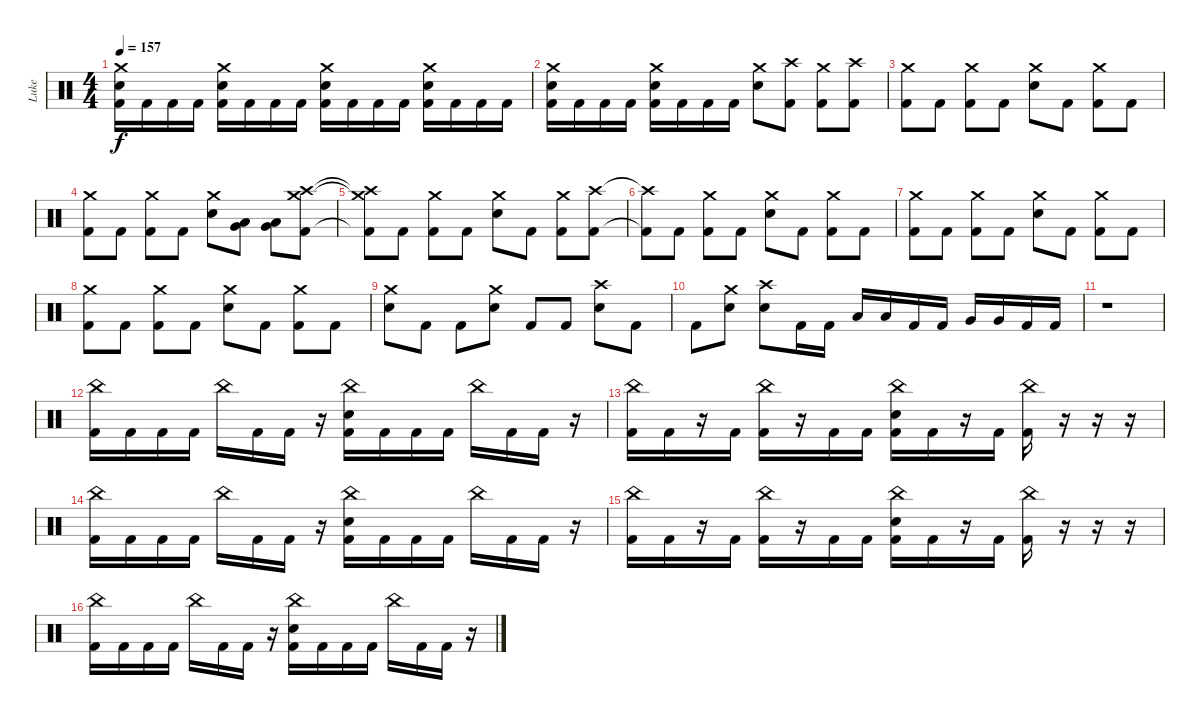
\track ("Luke" "Luke") {instrument percussion}
\staff {score}
\articulation defaults
\ts (4 4)
\tempo 157
\clef neutral
\ks c
("Crash medium (hit)" "Electric Snare (hit)" "Kick (hit) 2").16{dy f} "Kick (hit) 2".16 "Kick (hit) 2".16 "Kick (hit) 2".16 ("Crash medium (hit)" "Electric Snare (hit)" "Kick (hit) 2").16 "Kick (hit) 2".16 "Kick (hit) 2".16 "Kick (hit) 2".16 ("Crash medium (hit)" "Electric Snare (hit)" "Kick (hit) 2").16 "Kick (hit) 2".16 "Kick (hit) 2".16 "Kick (hit) 2".16 ("Crash medium (hit)" "Electric Snare (hit)" "Kick (hit) 2").16 "Kick (hit) 2".16 "Kick (hit) 2".16 "Kick (hit) 2".16 |
("Crash medium (hit)" "Electric Snare (hit)" "Kick (hit) 2").16 "Kick (hit) 2".16 "Kick (hit) 2".16 "Kick (hit) 2".16 ("Crash medium (hit)" "Electric Snare (hit)" "Kick (hit) 2").16 "Kick (hit) 2".16 "Kick (hit) 2".16 "Kick (hit) 2".16 ("Crash medium (hit)" "Electric Snare (hit)").8 ("Crash high (hit)" "Kick (hit) 2").8 ("Crash medium (hit)" "Kick (hit) 2").8 ("Crash high (hit)" "Kick (hit) 2").8 |
("Crash medium (hit)" "Kick (hit) 2").8 "Kick (hit) 2".8 ("Crash medium (hit)" "Kick (hit) 2").8 "Kick (hit) 2".8 ("Crash medium (hit)" "Electric Snare (hit)").8 "Kick (hit) 2".8 ("Crash medium (hit)" "Kick (hit) 2").8 "Kick (hit) 2".8 |
("Crash medium (hit)" "Kick (hit) 2").8 "Kick (hit) 2".8 ("Crash medium (hit)" "Kick (hit) 2").8 "Kick (hit) 2".8 ("Crash medium (hit)" "Electric Snare (hit)").8 ("Very Low Tom (hit)" "Low Floor Tom (hit)").8 ("Very Low Tom (hit)" "Low Floor Tom (hit)").8 ("Crash medium (hit)" "Crash high (hit)" "Kick (hit) 2").8 |
("Crash medium (hit)"{t} "Crash high (hit)"{t} "Kick (hit) 2"{t}).8 "Kick (hit) 2".8 ("Crash medium (hit)" "Kick (hit) 2").8 "Kick (hit) 2".8 ("Crash medium (hit)" "Electric Snare (hit)").8 "Kick (hit) 2".8 ("Crash medium (hit)" "Kick (hit) 2").8 ("Crash high (hit)" "Kick (hit) 2").8 |
("Crash high (hit)"{t} "Kick (hit) 2"{t}).8 "Kick (hit) 2".8 ("Crash medium (hit)" "Kick (hit) 2").8 "Kick (hit) 2".8 ("Crash medium (hit)" "Electric Snare (hit)").8 "Kick (hit) 2".8 ("Crash medium (hit)" "Kick (hit) 2").8 "Kick (hit) 2".8 |
("Crash medium (hit)" "Kick (hit) 2").8 "Kick (hit) 2".8 ("Crash medium (hit)" "Kick (hit) 2").8 "Kick (hit) 2".8 ("Crash medium (hit)" "Electric Snare (hit)").8 "Kick (hit) 2".8 ("Crash medium (hit)" "Kick (hit) 2").8 "Kick (hit) 2".8 |
("Crash medium (hit)" "Kick (hit) 2").8 "Kick (hit) 2".8 ("Crash medium (hit)" "Kick (hit) 2").8 "Kick (hit) 2".8 ("Crash medium (hit)" "Electric Snare (hit)").8 "Kick (hit) 2".8 ("Crash medium (hit)" "Kick (hit) 2").8 "Kick (hit) 2".8 |
("Crash medium (hit)" "Electric Snare (hit)").8 "Kick (hit) 2".8 "Kick (hit) 2".8 ("Crash medium (hit)" "Electric Snare (hit)").8 "Kick (hit) 2".8 "Kick (hit) 2".8 ("Crash high (hit)" "Electric Snare (hit)").8 "Kick (hit) 2".8 |
"Kick (hit) 2".8 ("Crash medium (hit)" "Electric Snare (hit)").8 ("Crash high (hit)" "Electric Snare (hit)").8 "Kick (hit) 2".16 "Kick (hit) 2".16 "Low Tom (hit)".16 "Low Tom (hit)".16 "Kick (hit) 2".16 "Kick (hit) 2".16 "Very Low Tom (hit)".16 "Very Low Tom (hit)".16 "Kick (hit) 2".16 "Kick (hit) 2".16 |
r.1 |
("China (hit)" "Kick (hit) 2").16 "Kick (hit) 2".16 "Kick (hit) 2".16 "Kick (hit) 2".16 "China (hit)".16 "Kick (hit) 2".16 "Kick (hit) 2".16 r.16 ("China (hit)" "Electric Snare (hit)" "Kick (hit) 2").16 "Kick (hit) 2".16 "Kick (hit) 2".16 "Kick (hit) 2".16 "China (hit)".16 "Kick (hit) 2".16 "Kick (hit) 2".16 r.16 |
("China (hit)" "Kick (hit) 2").16 "Kick (hit) 2".16 r.16 "Kick (hit) 2".16 ("China (hit)" "Kick (hit) 2").16 r.16 "Kick (hit) 2".16 "Kick (hit) 2".16 ("China (hit)" "Electric Snare (hit)" "Kick (hit) 2").16 "Kick (hit) 2".16 r.16 "Kick (hit) 2".16 ("China (hit)" "Kick (hit) 2").16 r.16 r.16 r.16 |
("China (hit)" "Kick (hit) 2").16 "Kick (hit) 2".16 "Kick (hit) 2".16 "Kick (hit) 2".16 "China (hit)".16 "Kick (hit) 2".16 "Kick (hit) 2".16 r.16 ("China (hit)" "Electric Snare (hit)" "Kick (hit) 2").16 "Kick (hit) 2".16 "Kick (hit) 2".16 "Kick (hit) 2".16 "China (hit)".16 "Kick (hit) 2".16 "Kick (hit) 2".16 r.16 |
("China (hit)" "Kick (hit) 2").16 "Kick (hit) 2".16 r.16 "Kick (hit) 2".16 ("China (hit)" "Kick (hit) 2").16 r.16 "Kick (hit) 2".16 "Kick (hit) 2".16 ("China (hit)" "Electric Snare (hit)" "Kick (hit) 2").16 "Kick (hit) 2".16 r.16 "Kick (hit) 2".16 ("China (hit)" "Kick (hit) 2").16 r.16 r.16 r.16 |
("China (hit)" "Kick (hit) 2").16 "Kick (hit) 2".16 "Kick (hit) 2".16 "Kick (hit) 2".16 "China (hit)".16 "Kick (hit) 2".16 "Kick (hit) 2".16 r.16 ("China (hit)" "Electric Snare (hit)" "Kick (hit) 2").16 "Kick (hit) 2".16 "Kick (hit) 2".16 "Kick (hit) 2".16 "China (hit)".16 "Kick (hit) 2".16 "Kick (hit) 2".16 r.16
